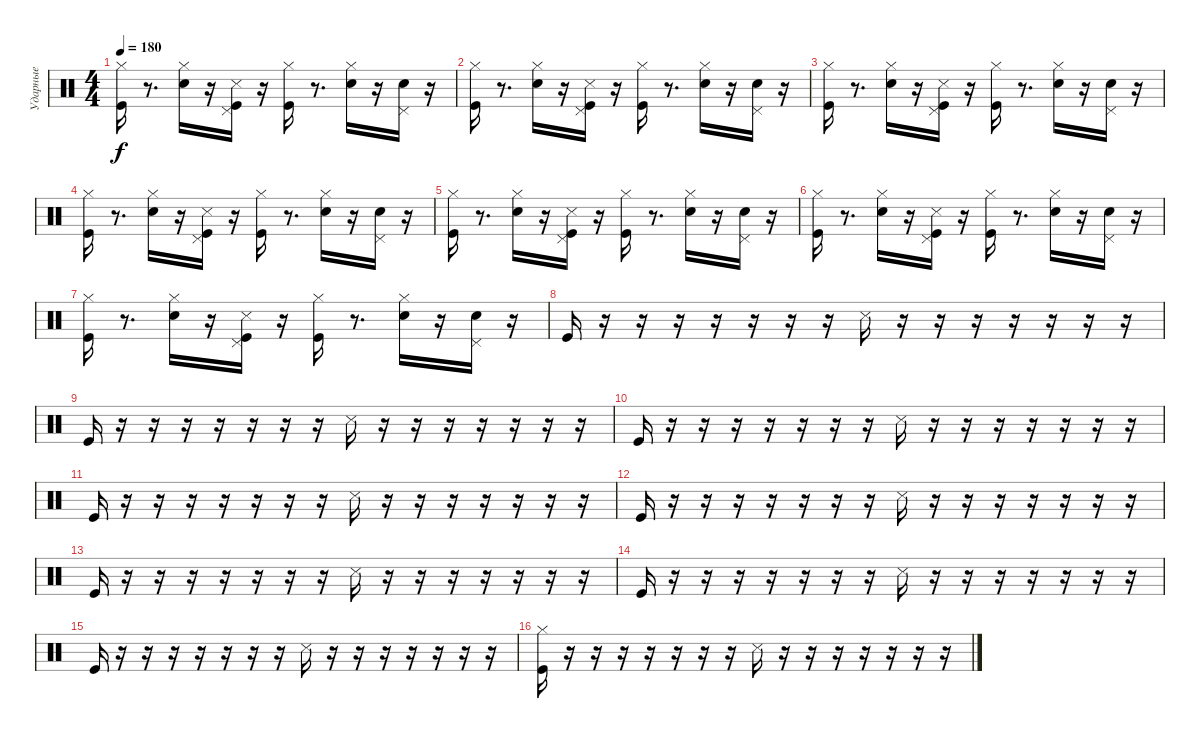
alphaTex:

\track ("Ударные" "Ударные") {instrument percussion}
\staff {score}
\articulation defaults
\ts (4 4)
\tempo 180
\clef neutral
\ks c
("Hi-Hat (closed)" "Kick (hit)").16{dy f} r.8{d} ("Hi-Hat (closed)" "Snare (hit) 2").16 r.16 ("Snare (side stick) 3" "Kick (hit)" "Pedal Hi-Hat (hit)").16 r.16 ("Hi-Hat (closed)" "Kick (hit)").16 r.8{d} ("Hi-Hat (closed)" "Snare (hit) 2").16 r.16 ("Snare (hit) 2" "Pedal Hi-Hat (hit)").16 r.16 |
("Hi-Hat (closed)" "Kick (hit)").16 r.8{d} ("Hi-Hat (closed)" "Snare (hit) 2").16 r.16 ("Snare (side stick) 3" "Kick (hit)" "Pedal Hi-Hat (hit)").16 r.16 ("Hi-Hat (closed)" "Kick (hit)").16 r.8{d} ("Hi-Hat (closed)" "Snare (hit) 2").16 r.16 ("Snare (hit) 2" "Pedal Hi-Hat (hit)").16 r.16 |
("Hi-Hat (closed)" "Kick (hit)").16 r.8{d} ("Hi-Hat (closed)" "Snare (hit) 2").16 r.16 ("Snare (side stick) 3" "Kick (hit)" "Pedal Hi-Hat (hit)").16 r.16 ("Hi-Hat (closed)" "Kick (hit)").16 r.8{d} ("Hi-Hat (closed)" "Snare (hit) 2").16 r.16 ("Snare (hit) 2" "Pedal Hi-Hat (hit)").16 r.16 |
("Hi-Hat (closed)" "Kick (hit)").16 r.8{d} ("Hi-Hat (closed)" "Snare (hit) 2").16 r.16 ("Snare (side stick) 3" "Kick (hit)" "Pedal Hi-Hat (hit)").16 r.16 ("Hi-Hat (closed)" "Kick (hit)").16 r.8{d} ("Hi-Hat (closed)" "Snare (hit) 2").16 r.16 ("Snare (hit) 2" "Pedal Hi-Hat (hit)").16 r.16 |
("Hi-Hat (closed)" "Kick (hit)").16 r.8{d} ("Hi-Hat (closed)" "Snare (hit) 2").16 r.16 ("Snare (side stick) 3" "Kick (hit)" "Pedal Hi-Hat (hit)").16 r.16 ("Hi-Hat (closed)" "Kick (hit)").16 r.8{d} ("Hi-Hat (closed)" "Snare (hit) 2").16 r.16 ("Snare (hit) 2" "Pedal Hi-Hat (hit)").16 r.16 |
("Hi-Hat (closed)" "Kick (hit)").16 r.8{d} ("Hi-Hat (closed)" "Snare (hit) 2").16 r.16 ("Snare (side stick) 3" "Kick (hit)" "Pedal Hi-Hat (hit)").16 r.16 ("Hi-Hat (closed)" "Kick (hit)").16 r.8{d} ("Hi-Hat (closed)" "Snare (hit) 2").16 r.16 ("Snare (hit) 2" "Pedal Hi-Hat (hit)").16 r.16 |
("Hi-Hat (closed)" "Kick (hit)").16 r.8{d} ("Hi-Hat (closed)" "Snare (hit) 2").16 r.16 ("Snare (side stick) 3" "Kick (hit)" "Pedal Hi-Hat (hit)").16 r.16 ("Hi-Hat (closed)" "Kick (hit)").16 r.8{d} ("Hi-Hat (closed)" "Snare (hit) 2").16 r.16 ("Snare (hit) 2" "Pedal Hi-Hat (hit)").16 r.16 |
"Kick (hit)".16 r.16 r.16 r.16 r.16 r.16 r.16 r.16 "Snare (side stick) 3".16 r.16 r.16 r.16 r.16 r.16 r.16 r.16 |
"Kick (hit)".16 r.16 r.16 r.16 r.16 r.16 r.16 r.16 "Snare (side stick) 3".16 r.16 r.16 r.16 r.16 r.16 r.16 r.16 |
"Kick (hit)".16 r.16 r.16 r.16 r.16 r.16 r.16 r.16 "Snare (side stick) 3".16 r.16 r.16 r.16 r.16 r.16 r.16 r.16 |
"Kick (hit)".16 r.16 r.16 r.16 r.16 r.16 r.16 r.16 "Snare (side stick) 3".16 r.16 r.16 r.16 r.16 r.16 r.16 r.16 |
"Kick (hit)".16 r.16 r.16 r.16 r.16 r.16 r.16 r.16 "Snare (side stick) 3".16 r.16 r.16 r.16 r.16 r.16 r.16 r.16 |
"Kick (hit)".16 r.16 r.16 r.16 r.16 r.16 r.16 r.16 "Snare (side stick) 3".16 r.16 r.16 r.16 r.16 r.16 r.16 r.16 |
"Kick (hit)".16 r.16 r.16 r.16 r.16 r.16 r.16 r.16 "Snare (side stick) 3".16 r.16 r.16 r.16 r.16 r.16 r.16 r.16 |
"Kick (hit)".16 r.16 r.16 r.16 r.16 r.16 r.16 r.16 "Snare (side stick) 3".16 r.16 r.16 r.16 r.16 r.16 r.16 r.16 |
("Kick (hit)" "Hi-Hat (closed)").16 r.16 r.16 r.16 r.16 r.16 r.16 r.16 "Snare (side stick) 3".16 r.16 r.16 r.16 r.16 r.16 r.16 r.16
